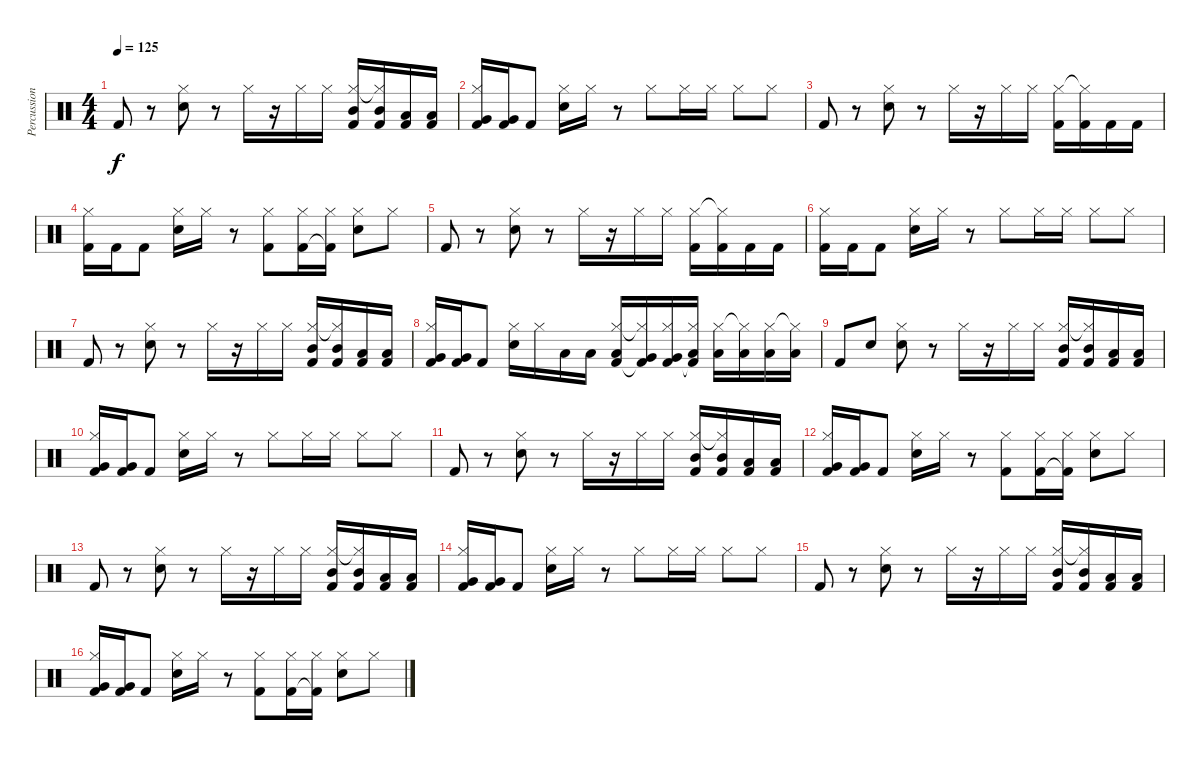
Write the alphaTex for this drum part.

\track ("Percussion" "Percussion") {instrument percussion}
\staff {score}
\articulation defaults
\ts (4 4)
\tempo 125
\clef neutral
\ks c "Kick (hit) 2".8{dy f}
r.8 ("Hi-Hat (closed)" "Electric Snare (hit)").8 r.8 "Hi-Hat (closed)".16 r.16 "Hi-Hat (closed)".16 "Hi-Hat (closed)".16 ("Hi-Hat (closed)" "Mid Tom (hit)" "Kick (hit) 2").16 ("Hi-Hat (closed)"{t} "Mid Tom (hit)" "Kick (hit) 2").16 ("Low Tom (hit)" "Kick (hit) 2").16 ("Low Tom (hit)" "Kick (hit) 2").16 |
("Hi-Hat (closed)" "Very Low Tom (hit)" "Kick (hit) 2").16 ("Very Low Tom (hit)" "Kick (hit) 2").16 "Kick (hit) 2".8 ("Hi-Hat (closed)" "Electric Snare (hit)").16 "Hi-Hat (closed)".16 r.8 "Hi-Hat (closed)".8 "Hi-Hat (closed)".16 "Hi-Hat (closed)".16 "Hi-Hat (closed)".8 "Hi-Hat (closed)".8 |
"Kick (hit) 2".8 r.8 ("Hi-Hat (closed)" "Electric Snare (hit)").8 r.8 "Hi-Hat (closed)".16 r.16 "Hi-Hat (closed)".16 "Hi-Hat (closed)".16 ("Hi-Hat (closed)" "Kick (hit) 2").16 ("Hi-Hat (closed)"{t} "Kick (hit) 2").16 "Kick (hit) 2".16 "Kick (hit) 2".16 |
("Hi-Hat (closed)" "Kick (hit) 2").16 "Kick (hit) 2".16 "Kick (hit) 2".8 ("Hi-Hat (closed)" "Electric Snare (hit)").16 "Hi-Hat (closed)".16 r.8 ("Hi-Hat (closed)" "Kick (hit) 2").8 ("Hi-Hat (closed)" "Kick (hit) 2").16 ("Hi-Hat (closed)" "Kick (hit) 2"{t}).16 ("Hi-Hat (closed)" "Electric Snare (hit)").8 "Hi-Hat (closed)".8 |
"Kick (hit) 2".8 r.8 ("Hi-Hat (closed)" "Electric Snare (hit)").8 r.8 "Hi-Hat (closed)".16 r.16 "Hi-Hat (closed)".16 "Hi-Hat (closed)".16 ("Hi-Hat (closed)" "Kick (hit) 2").16 ("Hi-Hat (closed)"{t} "Kick (hit) 2").16 "Kick (hit) 2".16 "Kick (hit) 2".16 |
("Hi-Hat (closed)" "Kick (hit) 2").16 "Kick (hit) 2".16 "Kick (hit) 2".8 ("Hi-Hat (closed)" "Electric Snare (hit)").16 "Hi-Hat (closed)".16 r.8 "Hi-Hat (closed)".8 "Hi-Hat (closed)".16 "Hi-Hat (closed)".16 "Hi-Hat (closed)".8 "Hi-Hat (closed)".8 |
"Kick (hit) 2".8 r.8 ("Hi-Hat (closed)" "Electric Snare (hit)").8 r.8 "Hi-Hat (closed)".16 r.16 "Hi-Hat (closed)".16 "Hi-Hat (closed)".16 ("Hi-Hat (closed)" "Mid Tom (hit)" "Kick (hit) 2").16 ("Hi-Hat (closed)"{t} "Mid Tom (hit)" "Kick (hit) 2").16 ("Low Tom (hit)" "Kick (hit) 2").16 ("Low Tom (hit)" "Kick (hit) 2").16 |
("Hi-Hat (closed)" "Very Low Tom (hit)" "Kick (hit) 2").16 ("Very Low Tom (hit)" "Kick (hit) 2").16 "Kick (hit) 2".8 ("Hi-Hat (closed)" "Electric Snare (hit)").16 "Hi-Hat (closed)".16 "Low Tom (hit)".16 "Low Tom (hit)".16 ("Hi-Hat (closed)" "Low Tom (hit)" "Kick (hit) 2").16 ("Hi-Hat (closed)"{t} "Very Low Tom (hit)" "Kick (hit) 2"{t}).16 ("Hi-Hat (closed)" "Very Low Tom (hit)" "Kick (hit) 2").16 ("Hi-Hat (closed)" "Low Floor Tom (hit)" "Kick (hit) 2"{t}).16 ("Hi-Hat (closed)" "Low Floor Tom (hit)").16 ("Hi-Hat (closed)"{t} "Low Floor Tom (hit)").16 ("Hi-Hat (closed)" "Low Floor Tom (hit)").16 ("Hi-Hat (closed)"{t} "Low Floor Tom (hit)").16 |
"Kick (hit) 2".8 "Electric Snare (hit)".8 ("Hi-Hat (closed)" "Electric Snare (hit)").8 r.8 "Hi-Hat (closed)".16 r.16 "Hi-Hat (closed)".16 "Hi-Hat (closed)".16 ("Hi-Hat (closed)" "Mid Tom (hit)" "Kick (hit) 2").16 ("Hi-Hat (closed)"{t} "Mid Tom (hit)" "Kick (hit) 2").16 ("Low Tom (hit)" "Kick (hit) 2").16 ("Low Tom (hit)" "Kick (hit) 2").16 |
("Hi-Hat (closed)" "Very Low Tom (hit)" "Kick (hit) 2").16 ("Very Low Tom (hit)" "Kick (hit) 2").16 "Kick (hit) 2".8 ("Hi-Hat (closed)" "Electric Snare (hit)").16 "Hi-Hat (closed)".16 r.8 "Hi-Hat (closed)".8 "Hi-Hat (closed)".16 "Hi-Hat (closed)".16 "Hi-Hat (closed)".8 "Hi-Hat (closed)".8 |
"Kick (hit) 2".8 r.8 ("Hi-Hat (closed)" "Electric Snare (hit)").8 r.8 "Hi-Hat (closed)".16 r.16 "Hi-Hat (closed)".16 "Hi-Hat (closed)".16 ("Hi-Hat (closed)" "Mid Tom (hit)" "Kick (hit) 2").16 ("Hi-Hat (closed)"{t} "Mid Tom (hit)" "Kick (hit) 2").16 ("Low Tom (hit)" "Kick (hit) 2").16 ("Low Tom (hit)" "Kick (hit) 2").16 |
("Hi-Hat (closed)" "Very Low Tom (hit)" "Kick (hit) 2").16 ("Very Low Tom (hit)" "Kick (hit) 2").16 "Kick (hit) 2".8 ("Hi-Hat (closed)" "Electric Snare (hit)").16 "Hi-Hat (closed)".16 r.8 ("Hi-Hat (closed)" "Kick (hit) 2").8 ("Hi-Hat (closed)" "Kick (hit) 2").16 ("Hi-Hat (closed)" "Kick (hit) 2"{t}).16 ("Hi-Hat (closed)" "Electric Snare (hit)").8 "Hi-Hat (closed)".8 |
"Kick (hit) 2".8 r.8 ("Hi-Hat (closed)" "Electric Snare (hit)").8 r.8 "Hi-Hat (closed)".16 r.16 "Hi-Hat (closed)".16 "Hi-Hat (closed)".16 ("Hi-Hat (closed)" "Mid Tom (hit)" "Kick (hit) 2").16 ("Hi-Hat (closed)"{t} "Mid Tom (hit)" "Kick (hit) 2").16 ("Low Tom (hit)" "Kick (hit) 2").16 ("Low Tom (hit)" "Kick (hit) 2").16 |
("Hi-Hat (closed)" "Very Low Tom (hit)" "Kick (hit) 2").16 ("Very Low Tom (hit)" "Kick (hit) 2").16 "Kick (hit) 2".8 ("Hi-Hat (closed)" "Electric Snare (hit)").16 "Hi-Hat (closed)".16 r.8 "Hi-Hat (closed)".8 "Hi-Hat (closed)".16 "Hi-Hat (closed)".16 "Hi-Hat (closed)".8 "Hi-Hat (closed)".8 |
"Kick (hit) 2".8 r.8 ("Hi-Hat (closed)" "Electric Snare (hit)").8 r.8 "Hi-Hat (closed)".16 r.16 "Hi-Hat (closed)".16 "Hi-Hat (closed)".16 ("Hi-Hat (closed)" "Mid Tom (hit)" "Kick (hit) 2").16 ("Hi-Hat (closed)"{t} "Mid Tom (hit)" "Kick (hit) 2").16 ("Low Tom (hit)" "Kick (hit) 2").16 ("Low Tom (hit)" "Kick (hit) 2").16 |
("Hi-Hat (closed)" "Very Low Tom (hit)" "Kick (hit) 2").16 ("Very Low Tom (hit)" "Kick (hit) 2").16 "Kick (hit) 2".8 ("Hi-Hat (closed)" "Electric Snare (hit)").16 "Hi-Hat (closed)".16 r.8 ("Hi-Hat (closed)" "Kick (hit) 2").8 ("Hi-Hat (closed)" "Kick (hit) 2").16 ("Hi-Hat (closed)" "Kick (hit) 2"{t}).16 ("Hi-Hat (closed)" "Electric Snare (hit)").8 "Hi-Hat (closed)".8
